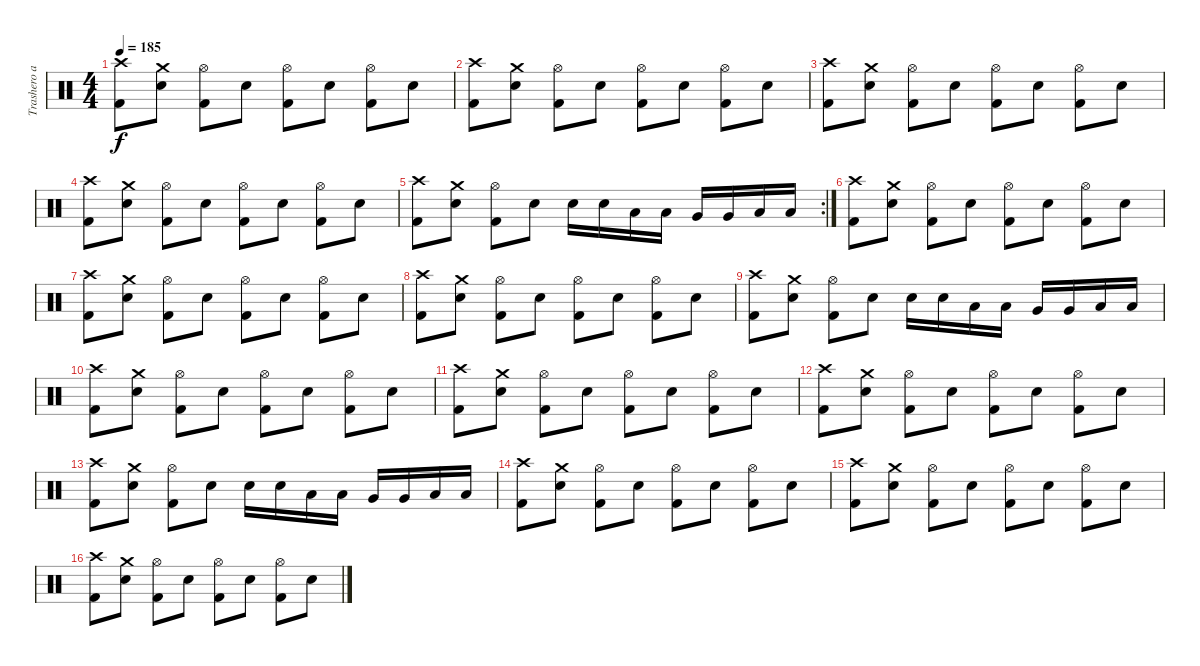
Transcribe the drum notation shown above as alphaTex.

\track ("Trashero al peo" "Trashero a") {instrument percussion}
\staff {score}
\articulation defaults
\ts (4 4)
\tempo 185
\clef neutral
\ks c
("Crash high (hit)" "Kick (hit) 2").8{dy f} ("Crash medium (hit)" "Electric Snare (hit)").8 ("Kick (hit) 2" "Hi-Hat (open)").8 "Electric Snare (hit)".8 ("Kick (hit) 2" "Hi-Hat (open)").8 "Electric Snare (hit)".8 ("Kick (hit) 2" "Hi-Hat (open)").8 "Electric Snare (hit)".8 |
("Crash high (hit)" "Kick (hit) 2").8 ("Crash medium (hit)" "Electric Snare (hit)").8 ("Kick (hit) 2" "Hi-Hat (open)").8 "Electric Snare (hit)".8 ("Kick (hit) 2" "Hi-Hat (open)").8 "Electric Snare (hit)".8 ("Kick (hit) 2" "Hi-Hat (open)").8 "Electric Snare (hit)".8 |
("Crash high (hit)" "Kick (hit) 2").8 ("Crash medium (hit)" "Electric Snare (hit)").8 ("Kick (hit) 2" "Hi-Hat (open)").8 "Electric Snare (hit)".8 ("Kick (hit) 2" "Hi-Hat (open)").8 "Electric Snare (hit)".8 ("Kick (hit) 2" "Hi-Hat (open)").8 "Electric Snare (hit)".8 |
("Crash high (hit)" "Kick (hit) 2").8 ("Crash medium (hit)" "Electric Snare (hit)").8 ("Kick (hit) 2" "Hi-Hat (open)").8 "Electric Snare (hit)".8 ("Kick (hit) 2" "Hi-Hat (open)").8 "Electric Snare (hit)".8 ("Kick (hit) 2" "Hi-Hat (open)").8 "Electric Snare (hit)".8 |
\rc 2
("Crash high (hit)" "Kick (hit) 2").8 ("Crash medium (hit)" "Electric Snare (hit)").8 ("Kick (hit) 2" "Hi-Hat (open)").8 "Electric Snare (hit)".8 "Electric Snare (hit)".16 "Electric Snare (hit)".16 "Low Floor Tom (hit)".16 "Low Floor Tom (hit)".16 "Very Low Tom (hit)".16 "Very Low Tom (hit)".16 "Low Tom (hit)".16 "Low Tom (hit)".16 |
("Crash high (hit)" "Kick (hit) 2").8 ("Crash medium (hit)" "Electric Snare (hit)").8 ("Kick (hit) 2" "Hi-Hat (open)").8 "Electric Snare (hit)".8 ("Kick (hit) 2" "Hi-Hat (open)").8 "Electric Snare (hit)".8 ("Kick (hit) 2" "Hi-Hat (open)").8 "Electric Snare (hit)".8 |
("Crash high (hit)" "Kick (hit) 2").8 ("Crash medium (hit)" "Electric Snare (hit)").8 ("Kick (hit) 2" "Hi-Hat (open)").8 "Electric Snare (hit)".8 ("Kick (hit) 2" "Hi-Hat (open)").8 "Electric Snare (hit)".8 ("Kick (hit) 2" "Hi-Hat (open)").8 "Electric Snare (hit)".8 |
("Crash high (hit)" "Kick (hit) 2").8 ("Crash medium (hit)" "Electric Snare (hit)").8 ("Kick (hit) 2" "Hi-Hat (open)").8 "Electric Snare (hit)".8 ("Kick (hit) 2" "Hi-Hat (open)").8 "Electric Snare (hit)".8 ("Kick (hit) 2" "Hi-Hat (open)").8 "Electric Snare (hit)".8 |
("Crash high (hit)" "Kick (hit) 2").8 ("Crash medium (hit)" "Electric Snare (hit)").8 ("Kick (hit) 2" "Hi-Hat (open)").8 "Electric Snare (hit)".8 "Electric Snare (hit)".16 "Electric Snare (hit)".16 "Low Floor Tom (hit)".16 "Low Floor Tom (hit)".16 "Very Low Tom (hit)".16 "Very Low Tom (hit)".16 "Low Tom (hit)".16 "Low Tom (hit)".16 |
("Crash high (hit)" "Kick (hit) 2").8 ("Crash medium (hit)" "Electric Snare (hit)").8 ("Kick (hit) 2" "Hi-Hat (open)").8 "Electric Snare (hit)".8 ("Kick (hit) 2" "Hi-Hat (open)").8 "Electric Snare (hit)".8 ("Kick (hit) 2" "Hi-Hat (open)").8 "Electric Snare (hit)".8 |
("Crash high (hit)" "Kick (hit) 2").8 ("Crash medium (hit)" "Electric Snare (hit)").8 ("Kick (hit) 2" "Hi-Hat (open)").8 "Electric Snare (hit)".8 ("Kick (hit) 2" "Hi-Hat (open)").8 "Electric Snare (hit)".8 ("Kick (hit) 2" "Hi-Hat (open)").8 "Electric Snare (hit)".8 |
("Crash high (hit)" "Kick (hit) 2").8 ("Crash medium (hit)" "Electric Snare (hit)").8 ("Kick (hit) 2" "Hi-Hat (open)").8 "Electric Snare (hit)".8 ("Kick (hit) 2" "Hi-Hat (open)").8 "Electric Snare (hit)".8 ("Kick (hit) 2" "Hi-Hat (open)").8 "Electric Snare (hit)".8 |
("Crash high (hit)" "Kick (hit) 2").8 ("Crash medium (hit)" "Electric Snare (hit)").8 ("Kick (hit) 2" "Hi-Hat (open)").8 "Electric Snare (hit)".8 "Electric Snare (hit)".16 "Electric Snare (hit)".16 "Low Floor Tom (hit)".16 "Low Floor Tom (hit)".16 "Very Low Tom (hit)".16 "Very Low Tom (hit)".16 "Low Tom (hit)".16 "Low Tom (hit)".16 |
("Crash high (hit)" "Kick (hit) 2").8 ("Crash medium (hit)" "Electric Snare (hit)").8 ("Kick (hit) 2" "Hi-Hat (open)").8 "Electric Snare (hit)".8 ("Kick (hit) 2" "Hi-Hat (open)").8 "Electric Snare (hit)".8 ("Kick (hit) 2" "Hi-Hat (open)").8 "Electric Snare (hit)".8 |
("Crash high (hit)" "Kick (hit) 2").8 ("Crash medium (hit)" "Electric Snare (hit)").8 ("Kick (hit) 2" "Hi-Hat (open)").8 "Electric Snare (hit)".8 ("Kick (hit) 2" "Hi-Hat (open)").8 "Electric Snare (hit)".8 ("Kick (hit) 2" "Hi-Hat (open)").8 "Electric Snare (hit)".8 |
("Crash high (hit)" "Kick (hit) 2").8 ("Crash medium (hit)" "Electric Snare (hit)").8 ("Kick (hit) 2" "Hi-Hat (open)").8 "Electric Snare (hit)".8 ("Kick (hit) 2" "Hi-Hat (open)").8 "Electric Snare (hit)".8 ("Kick (hit) 2" "Hi-Hat (open)").8 "Electric Snare (hit)".8
